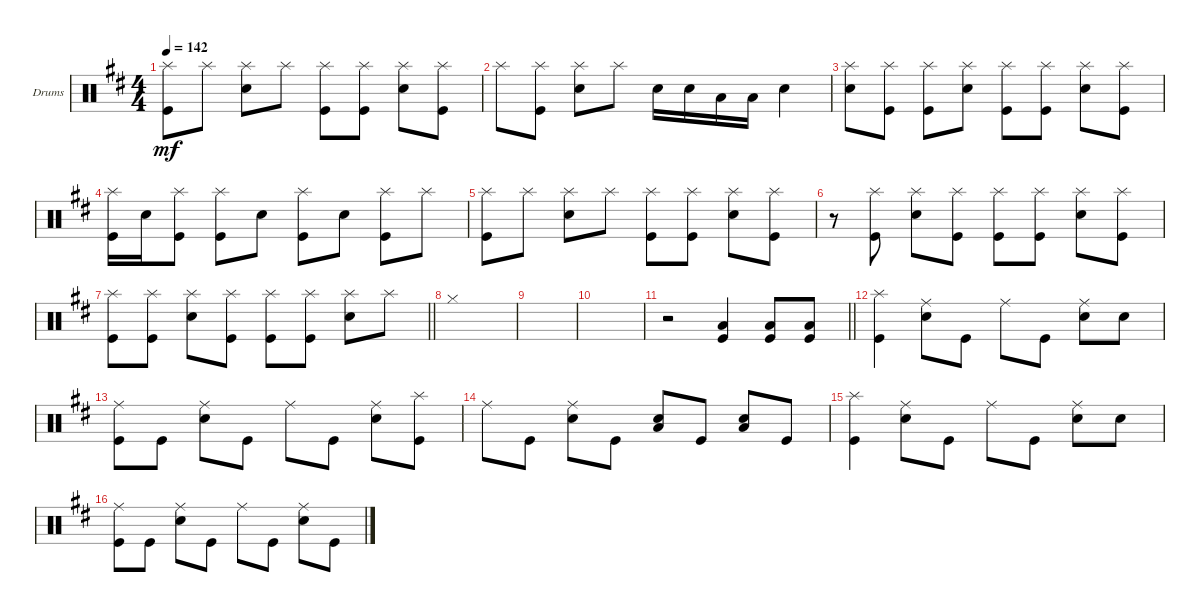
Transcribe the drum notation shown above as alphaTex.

\defaultSystemsLayout 4
\bracketExtendMode groupsimilarinstruments
\firstSystemTrackNameOrientation horizontal
\otherSystemsTrackNameOrientation horizontal
\track ("Drums" "Drums") {instrument percussion}
\staff {score}
\articulation defaults
\ts (4 4)
\tempo 142
\clef neutral
\ks d
("Splash (hit)" "Kick (hit)").8{dy mf} "Splash (hit)".8 ("Splash (hit)" "Snare (hit) 2").8 "Splash (hit)".8 ("Splash (hit)" "Kick (hit)").8 ("Splash (hit)" "Kick (hit)").8 ("Splash (hit)" "Snare (hit) 2").8 ("Splash (hit)" "Kick (hit)").8 |
"Splash (hit)".8 ("Splash (hit)" "Kick (hit)").8 ("Splash (hit)" "Snare (hit) 2").8 "Splash (hit)".8 "Snare (hit) 2".16 "Snare (hit) 2".16 "Low Tom (hit)".16 "Low Tom (hit)".16 "Snare (hit) 2".4 |
("Snare (hit) 2" "Splash (hit)").8 ("Kick (hit)" "Splash (hit)").8 ("Kick (hit)" "Splash (hit)").8 ("Snare (hit) 2" "Splash (hit)").8 ("Kick (hit)" "Splash (hit)").8 ("Kick (hit)" "Splash (hit)").8 ("Snare (hit) 2" "Splash (hit)").8 ("Kick (hit)" "Splash (hit)").8 |
("Splash (hit)" "Kick (hit)").16 "Snare (hit) 2".16 ("Splash (hit)" "Kick (hit)").8 ("Splash (hit)" "Kick (hit)").8 "Snare (hit) 2".8 ("Splash (hit)" "Kick (hit)").8 "Snare (hit) 2".8 ("Splash (hit)" "Kick (hit)").8 "Splash (hit)".8 |
("Splash (hit)" "Kick (hit)").8 "Splash (hit)".8 ("Splash (hit)" "Snare (hit) 2").8 "Splash (hit)".8 ("Splash (hit)" "Kick (hit)").8 ("Splash (hit)" "Kick (hit)").8 ("Splash (hit)" "Snare (hit) 2").8 ("Splash (hit)" "Kick (hit)").8 |
r.8 ("Kick (hit)" "Splash (hit)").8 ("Snare (hit) 2" "Splash (hit)").8 ("Kick (hit)" "Splash (hit)").8 ("Kick (hit)" "Splash (hit)").8 ("Kick (hit)" "Splash (hit)").8 ("Snare (hit) 2" "Splash (hit)").8 ("Kick (hit)" "Splash (hit)").8 |
\barLineRight lightlight
("Kick (hit)" "Splash (hit)").8 ("Kick (hit)" "Splash (hit)").8 ("Snare (hit) 2" "Splash (hit)").8 ("Kick (hit)" "Splash (hit)").8 ("Kick (hit)" "Splash (hit)").8 ("Kick (hit)" "Splash (hit)").8 ("Snare (hit) 2" "Splash (hit)").8 "Splash (hit)".8 |
"Hi-Hat (closed)".1 |
|
|
\barLineRight lightlight
r.2 ("Kick (hit)" "Low Tom (hit)").4 ("Kick (hit)" "Low Tom (hit)").8 ("Kick (hit)" "Low Tom (hit)").8 |
("Kick (hit)" "Splash (hit)").4 ("Ride (middle)" "Snare (hit) 2").8 "Kick (hit)".8 "Ride (middle)".8 "Kick (hit)".8 ("Ride (middle)" "Snare (hit) 2").8 "Snare (hit) 2".8 |
("Kick (hit)" "Ride (middle)").8 "Kick (hit)".8 ("Ride (middle)" "Snare (hit) 2").8 "Kick (hit)".8 "Ride (middle)".8 "Kick (hit)".8 ("Ride (middle)" "Snare (hit) 2").8 ("Kick (hit)" "Splash (hit)").8 |
"Ride (middle)".8 "Kick (hit)".8 ("Snare (hit) 2" "Ride (middle)").8 "Kick (hit)".8 ("Snare (hit) 2" "Low Tom (hit)").8 "Kick (hit)".8 ("Snare (hit) 2" "Low Tom (hit)").8 "Kick (hit)".8 |
("Kick (hit)" "Splash (hit)").4 ("Ride (middle)" "Snare (hit) 2").8 "Kick (hit)".8 "Ride (middle)".8 "Kick (hit)".8 ("Ride (middle)" "Snare (hit) 2").8 "Snare (hit) 2".8 |
("Kick (hit)" "Ride (middle)").8 "Kick (hit)".8 ("Ride (middle)" "Snare (hit) 2").8 "Kick (hit)".8 "Ride (middle)".8 "Kick (hit)".8 ("Ride (middle)" "Snare (hit) 2").8 "Kick (hit)".8
